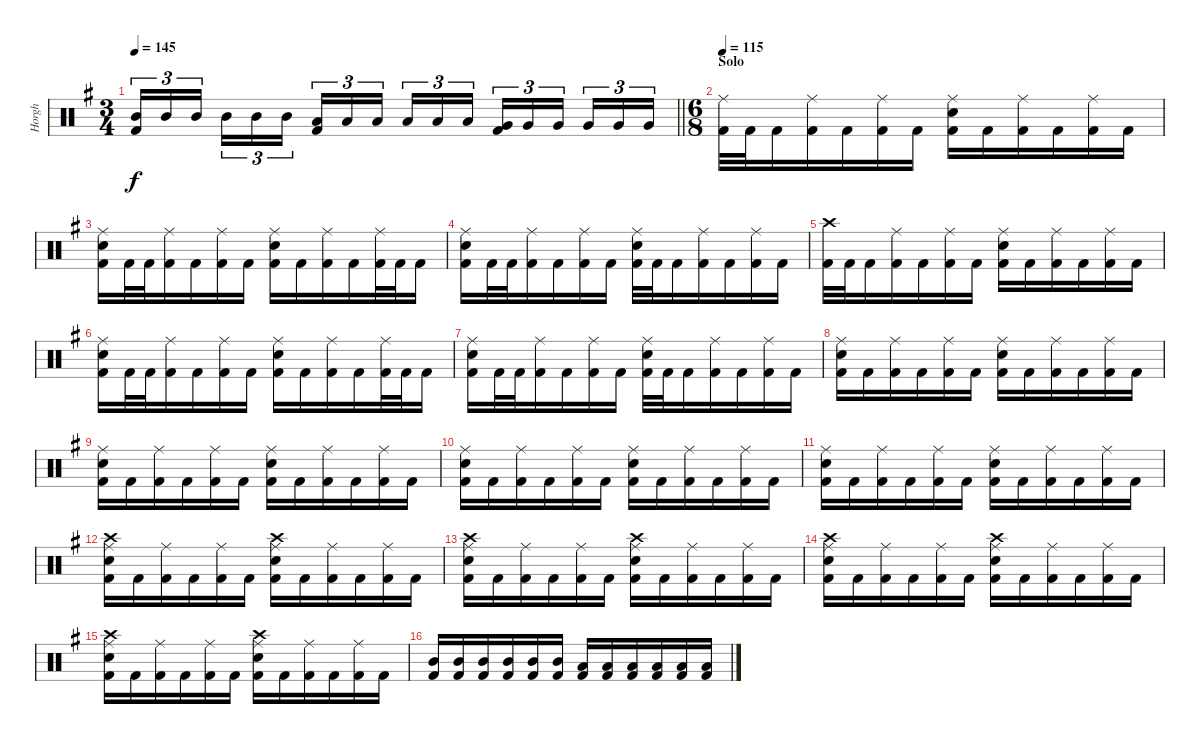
\track ("Horgh" "Horgh") {instrument percussion}
\staff {score}
\articulation defaults
\ts (3 4)
\tempo 145
\clef neutral
\barLineRight lightlight
\ks g
("Mid Tom (hit)" "Kick (hit) 2").16{tu (3 2) dy f} "Mid Tom (hit)".16{tu (3 2)} "Mid Tom (hit)".16{tu (3 2) beam splitsecondary} "Mid Tom (hit)".16{tu (3 2)} "Mid Tom (hit)".16{tu (3 2)} "Mid Tom (hit)".16{tu (3 2)} ("Low Tom (hit)" "Kick (hit) 2").16{tu (3 2)} "Low Tom (hit)".16{tu (3 2)} "Low Tom (hit)".16{tu (3 2) beam splitsecondary} "Low Tom (hit)".16{tu (3 2)} "Low Tom (hit)".16{tu (3 2)} "Low Tom (hit)".16{tu (3 2)} ("Very Low Tom (hit)" "Kick (hit) 2").16{tu (3 2)} "Very Low Tom (hit)".16{tu (3 2)} "Very Low Tom (hit)".16{tu (3 2) beam splitsecondary} "Very Low Tom (hit)".16{tu (3 2)} "Very Low Tom (hit)".16{tu (3 2)} "Very Low Tom (hit)".16{tu (3 2)} |
\ts (6 8)
\section ("" "Solo")
\tempo 115
("Ride (middle)" "Kick (hit) 2").32 "Kick (hit) 2".32 "Kick (hit) 2".16 ("Ride (middle)" "Kick (hit) 2").16 "Kick (hit) 2".16 ("Ride (middle)" "Kick (hit) 2").16 "Kick (hit) 2".16 ("Ride (middle)" "Electric Snare (hit)" "Kick (hit) 2").16 "Kick (hit) 2".16 ("Ride (middle)" "Kick (hit) 2").16 "Kick (hit) 2".16 ("Ride (middle)" "Kick (hit) 2").16 "Kick (hit) 2".16 |
("Ride (middle)" "Electric Snare (hit)" "Kick (hit) 2").16 "Kick (hit) 2".32 "Kick (hit) 2".32 ("Ride (middle)" "Kick (hit) 2").16 "Kick (hit) 2".16 ("Ride (middle)" "Kick (hit) 2").16 "Kick (hit) 2".16 ("Ride (middle)" "Electric Snare (hit)" "Kick (hit) 2").16 "Kick (hit) 2".16 ("Ride (middle)" "Kick (hit) 2").16 "Kick (hit) 2".16 ("Ride (middle)" "Kick (hit) 2").32 "Kick (hit) 2".32 "Kick (hit) 2".16 |
("Ride (middle)" "Electric Snare (hit)" "Kick (hit) 2").16 "Kick (hit) 2".32 "Kick (hit) 2".32 ("Ride (middle)" "Kick (hit) 2").16 "Kick (hit) 2".16 ("Ride (middle)" "Kick (hit) 2").16 "Kick (hit) 2".16 ("Ride (middle)" "Electric Snare (hit)" "Kick (hit) 2").32 "Kick (hit) 2".32 "Kick (hit) 2".16 ("Ride (middle)" "Kick (hit) 2").16 "Kick (hit) 2".16 ("Ride (middle)" "Kick (hit) 2").16 "Kick (hit) 2".16 |
("Crash high (hit)" "Kick (hit) 2").32 "Kick (hit) 2".32 "Kick (hit) 2".16 ("Ride (middle)" "Kick (hit) 2").16 "Kick (hit) 2".16 ("Ride (middle)" "Kick (hit) 2").16 "Kick (hit) 2".16 ("Ride (middle)" "Electric Snare (hit)" "Kick (hit) 2").16 "Kick (hit) 2".16 ("Ride (middle)" "Kick (hit) 2").16 "Kick (hit) 2".16 ("Ride (middle)" "Kick (hit) 2").16 "Kick (hit) 2".16 |
("Ride (middle)" "Electric Snare (hit)" "Kick (hit) 2").16 "Kick (hit) 2".32 "Kick (hit) 2".32 ("Ride (middle)" "Kick (hit) 2").16 "Kick (hit) 2".16 ("Ride (middle)" "Kick (hit) 2").16 "Kick (hit) 2".16 ("Ride (middle)" "Electric Snare (hit)" "Kick (hit) 2").16 "Kick (hit) 2".16 ("Ride (middle)" "Kick (hit) 2").16 "Kick (hit) 2".16 ("Ride (middle)" "Kick (hit) 2").32 "Kick (hit) 2".32 "Kick (hit) 2".16 |
("Ride (middle)" "Electric Snare (hit)" "Kick (hit) 2").16 "Kick (hit) 2".32 "Kick (hit) 2".32 ("Ride (middle)" "Kick (hit) 2").16 "Kick (hit) 2".16 ("Ride (middle)" "Kick (hit) 2").16 "Kick (hit) 2".16 ("Ride (middle)" "Electric Snare (hit)" "Kick (hit) 2").32 "Kick (hit) 2".32 "Kick (hit) 2".16 ("Ride (middle)" "Kick (hit) 2").16 "Kick (hit) 2".16 ("Ride (middle)" "Kick (hit) 2").16 "Kick (hit) 2".16 |
("Ride (middle)" "Electric Snare (hit)" "Kick (hit) 2").16 "Kick (hit) 2".16 ("Ride (middle)" "Kick (hit) 2").16 "Kick (hit) 2".16 ("Ride (middle)" "Kick (hit) 2").16 "Kick (hit) 2".16 ("Ride (middle)" "Electric Snare (hit)" "Kick (hit) 2").16 "Kick (hit) 2".16 ("Ride (middle)" "Kick (hit) 2").16 "Kick (hit) 2".16 ("Ride (middle)" "Kick (hit) 2").16 "Kick (hit) 2".16 |
("Ride (middle)" "Electric Snare (hit)" "Kick (hit) 2").16 "Kick (hit) 2".16 ("Ride (middle)" "Kick (hit) 2").16 "Kick (hit) 2".16 ("Ride (middle)" "Kick (hit) 2").16 "Kick (hit) 2".16 ("Ride (middle)" "Electric Snare (hit)" "Kick (hit) 2").16 "Kick (hit) 2".16 ("Ride (middle)" "Kick (hit) 2").16 "Kick (hit) 2".16 ("Ride (middle)" "Kick (hit) 2").16 "Kick (hit) 2".16 |
("Ride (middle)" "Electric Snare (hit)" "Kick (hit) 2").16 "Kick (hit) 2".16 ("Ride (middle)" "Kick (hit) 2").16 "Kick (hit) 2".16 ("Ride (middle)" "Kick (hit) 2").16 "Kick (hit) 2".16 ("Ride (middle)" "Electric Snare (hit)" "Kick (hit) 2").16 "Kick (hit) 2".16 ("Ride (middle)" "Kick (hit) 2").16 "Kick (hit) 2".16 ("Ride (middle)" "Kick (hit) 2").16 "Kick (hit) 2".16 |
("Ride (middle)" "Electric Snare (hit)" "Kick (hit) 2").16 "Kick (hit) 2".16 ("Ride (middle)" "Kick (hit) 2").16 "Kick (hit) 2".16 ("Ride (middle)" "Kick (hit) 2").16 "Kick (hit) 2".16 ("Ride (middle)" "Electric Snare (hit)" "Kick (hit) 2").16 "Kick (hit) 2".16 ("Ride (middle)" "Kick (hit) 2").16 "Kick (hit) 2".16 ("Ride (middle)" "Kick (hit) 2").16 "Kick (hit) 2".16 |
("Ride (middle)" "Crash high (hit)" "Electric Snare (hit)" "Kick (hit) 2").16 "Kick (hit) 2".16 ("Ride (middle)" "Kick (hit) 2").16 "Kick (hit) 2".16 ("Ride (middle)" "Kick (hit) 2").16 "Kick (hit) 2".16 ("Ride (middle)" "Crash high (hit)" "Electric Snare (hit)" "Kick (hit) 2").16 "Kick (hit) 2".16 ("Ride (middle)" "Kick (hit) 2").16 "Kick (hit) 2".16 ("Ride (middle)" "Kick (hit) 2").16 "Kick (hit) 2".16 |
("Ride (middle)" "Crash high (hit)" "Electric Snare (hit)" "Kick (hit) 2").16 "Kick (hit) 2".16 ("Ride (middle)" "Kick (hit) 2").16 "Kick (hit) 2".16 ("Ride (middle)" "Kick (hit) 2").16 "Kick (hit) 2".16 ("Ride (middle)" "Crash high (hit)" "Electric Snare (hit)" "Kick (hit) 2").16 "Kick (hit) 2".16 ("Ride (middle)" "Kick (hit) 2").16 "Kick (hit) 2".16 ("Ride (middle)" "Kick (hit) 2").16 "Kick (hit) 2".16 |
("Ride (middle)" "Crash high (hit)" "Electric Snare (hit)" "Kick (hit) 2").16 "Kick (hit) 2".16 ("Ride (middle)" "Kick (hit) 2").16 "Kick (hit) 2".16 ("Ride (middle)" "Kick (hit) 2").16 "Kick (hit) 2".16 ("Ride (middle)" "Crash high (hit)" "Electric Snare (hit)" "Kick (hit) 2").16 "Kick (hit) 2".16 ("Ride (middle)" "Kick (hit) 2").16 "Kick (hit) 2".16 ("Ride (middle)" "Kick (hit) 2").16 "Kick (hit) 2".16 |
("Ride (middle)" "Crash high (hit)" "Electric Snare (hit)" "Kick (hit) 2").16 "Kick (hit) 2".16 ("Ride (middle)" "Kick (hit) 2").16 "Kick (hit) 2".16 ("Ride (middle)" "Kick (hit) 2").16 "Kick (hit) 2".16 ("Ride (middle)" "Crash high (hit)" "Electric Snare (hit)" "Kick (hit) 2").16 "Kick (hit) 2".16 ("Ride (middle)" "Kick (hit) 2").16 "Kick (hit) 2".16 ("Ride (middle)" "Kick (hit) 2").16 "Kick (hit) 2".16 |
("Mid Tom (hit)" "Kick (hit) 2").16 ("Mid Tom (hit)" "Kick (hit) 2").16 ("Mid Tom (hit)" "Kick (hit) 2").16 ("Mid Tom (hit)" "Kick (hit) 2").16 ("Mid Tom (hit)" "Kick (hit) 2").16 ("Mid Tom (hit)" "Kick (hit) 2").16 ("Low Tom (hit)" "Kick (hit) 2").16 ("Low Tom (hit)" "Kick (hit) 2").16 ("Low Tom (hit)" "Kick (hit) 2").16 ("Low Tom (hit)" "Kick (hit) 2").16 ("Low Tom (hit)" "Kick (hit) 2").16 ("Low Tom (hit)" "Kick (hit) 2").16
